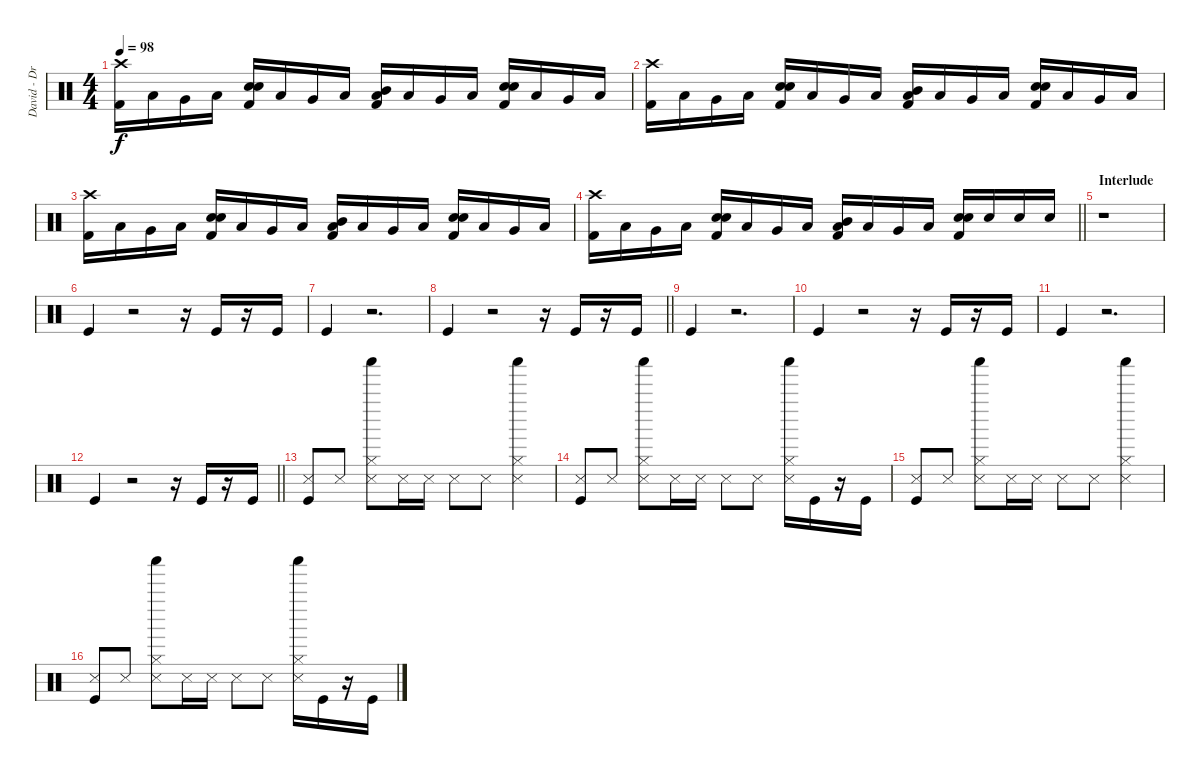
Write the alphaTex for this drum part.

\track ("David - Drums" "David - Dr") {instrument percussion}
\staff {score}
\articulation defaults
\ts (4 4)
\tempo 98
\clef neutral
\ks c
("Crash high (hit)" "Kick (hit) 2").16{dy f} "Low Tom (hit)".16 "Very Low Tom (hit)".16 "Low Floor Tom (hit)".16 ("Electric Snare (hit)" "Electric Snare (hit)" "Kick (hit) 2").16{bd 240} "Low Tom (hit)".16 "Very Low Tom (hit)".16 "Low Floor Tom (hit)".16 ("Mid Tom (hit)" "Low Tom (hit)" "Kick (hit) 2").16{bd 240} "Low Tom (hit)".16 "Very Low Tom (hit)".16 "Low Floor Tom (hit)".16 ("Electric Snare (hit)" "Electric Snare (hit)" "Kick (hit) 2").16{bd 240} "Low Tom (hit)".16 "Very Low Tom (hit)".16 "Low Floor Tom (hit)".16 |
("Crash high (hit)" "Kick (hit) 2").16 "Low Tom (hit)".16 "Very Low Tom (hit)".16 "Low Floor Tom (hit)".16 ("Electric Snare (hit)" "Electric Snare (hit)" "Kick (hit) 2").16{bd 240} "Low Tom (hit)".16 "Very Low Tom (hit)".16 "Low Floor Tom (hit)".16 ("Mid Tom (hit)" "Low Tom (hit)" "Kick (hit) 2").16{bd 240} "Low Tom (hit)".16 "Very Low Tom (hit)".16 "Low Floor Tom (hit)".16 ("Electric Snare (hit)" "Electric Snare (hit)" "Kick (hit) 2").16{bd 240} "Low Tom (hit)".16 "Very Low Tom (hit)".16 "Low Floor Tom (hit)".16 |
("Crash high (hit)" "Kick (hit) 2").16 "Low Tom (hit)".16 "Very Low Tom (hit)".16 "Low Floor Tom (hit)".16 ("Electric Snare (hit)" "Electric Snare (hit)" "Kick (hit) 2").16{bd 240} "Low Tom (hit)".16 "Very Low Tom (hit)".16 "Low Floor Tom (hit)".16 ("Mid Tom (hit)" "Low Tom (hit)" "Kick (hit) 2").16{bd 240} "Low Tom (hit)".16 "Very Low Tom (hit)".16 "Low Floor Tom (hit)".16 ("Electric Snare (hit)" "Electric Snare (hit)" "Kick (hit) 2").16{bd 240} "Low Tom (hit)".16 "Very Low Tom (hit)".16 "Low Floor Tom (hit)".16 |
\barLineRight lightlight
("Crash high (hit)" "Kick (hit) 2").16 "Low Tom (hit)".16 "Very Low Tom (hit)".16 "Low Floor Tom (hit)".16 ("Electric Snare (hit)" "Electric Snare (hit)" "Kick (hit) 2").16{bd 240} "Low Tom (hit)".16 "Very Low Tom (hit)".16 "Low Floor Tom (hit)".16 ("Mid Tom (hit)" "Low Tom (hit)" "Kick (hit) 2").16{bd 240} "Low Tom (hit)".16 "Very Low Tom (hit)".16 "Low Floor Tom (hit)".16 ("Electric Snare (hit)" "Electric Snare (hit)" "Kick (hit) 2").16{bd 240} "Electric Snare (hit)".16 "Electric Snare (hit)".16 "Electric Snare (hit)".16 |
\section ("" "Interlude")
r.1 |
"Kick (hit)".4 r.2 r.16 "Kick (hit)".16 r.16 "Kick (hit)".16 |
"Kick (hit)".4 r.2{d} |
\barLineRight lightlight "Kick (hit)".4
r.2 r.16 "Kick (hit)".16 r.16 "Kick (hit)".16 |
"Kick (hit)".4 r.2{d} |
"Kick (hit)".4 r.2 r.16 "Kick (hit)".16 r.16 "Kick (hit)".16 |
"Kick (hit)".4 r.2{d} |
\barLineRight lightlight "Kick (hit)".4
r.2 r.16 "Kick (hit)".16 r.16 "Kick (hit)".16 |
("Kick (hit)" "Metronome (hit)").8 "Metronome (hit)".8 ("Shaker (hit)" "Hi-Hat (closed)" "Metronome (hit)").8 "Metronome (hit)".16 "Metronome (hit)".16 "Metronome (hit)".8 "Metronome (hit)".8 ("Shaker (hit)" "Hi-Hat (closed)" "Metronome (hit)").4 |
("Kick (hit)" "Metronome (hit)").8 "Metronome (hit)".8 ("Shaker (hit)" "Hi-Hat (closed)" "Metronome (hit)").8 "Metronome (hit)".16 "Metronome (hit)".16 "Metronome (hit)".8 "Metronome (hit)".8 ("Shaker (hit)" "Hi-Hat (closed)" "Metronome (hit)").16 "Kick (hit)".16 r.16 "Kick (hit)".16 |
("Kick (hit)" "Metronome (hit)").8 "Metronome (hit)".8 ("Shaker (hit)" "Hi-Hat (closed)" "Metronome (hit)").8 "Metronome (hit)".16 "Metronome (hit)".16 "Metronome (hit)".8 "Metronome (hit)".8 ("Shaker (hit)" "Hi-Hat (closed)" "Metronome (hit)").4 |
("Kick (hit)" "Metronome (hit)").8 "Metronome (hit)".8 ("Shaker (hit)" "Hi-Hat (closed)" "Metronome (hit)").8 "Metronome (hit)".16 "Metronome (hit)".16 "Metronome (hit)".8 "Metronome (hit)".8 ("Shaker (hit)" "Hi-Hat (closed)" "Metronome (hit)").16 "Kick (hit)".16 r.16 "Kick (hit)".16
